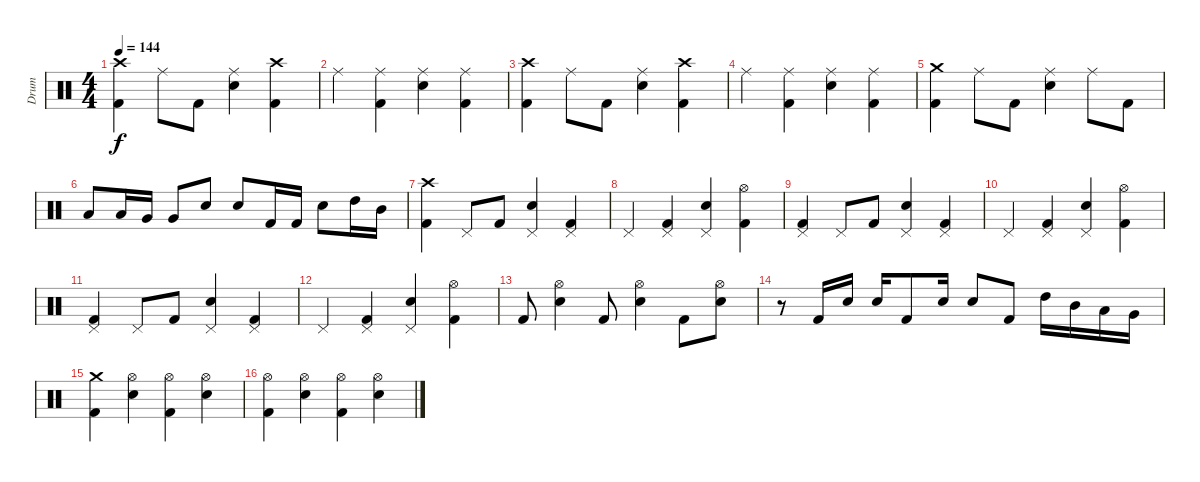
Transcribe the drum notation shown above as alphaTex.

\track ("Drum" "Drum") {instrument percussion}
\staff {score}
\articulation defaults
\ts (4 4)
\tempo 144
\clef neutral
\ks c
("Crash high (hit)" "Kick (hit) 2").4{dy f} "Ride (middle)".8 "Kick (hit) 2".8 ("Ride (middle)" "Electric Snare (hit)").4 ("Crash high (hit)" "Kick (hit) 2").4 |
"Ride (middle)".4 ("Ride (middle)" "Kick (hit) 2").4 ("Ride (middle)" "Electric Snare (hit)").4 ("Ride (middle)" "Kick (hit) 2").4 |
("Crash high (hit)" "Kick (hit) 2").4 "Ride (middle)".8 "Kick (hit) 2".8 ("Ride (middle)" "Electric Snare (hit)").4 ("Crash high (hit)" "Kick (hit) 2").4 |
"Ride (middle)".4 ("Ride (middle)" "Kick (hit) 2").4 ("Ride (middle)" "Electric Snare (hit)").4 ("Ride (middle)" "Kick (hit) 2").4 |
("Crash medium (hit)" "Kick (hit) 2").4 "Ride (middle)".8 "Kick (hit) 2".8 ("Ride (middle)" "Electric Snare (hit)").4 "Ride (middle)".8 "Kick (hit) 2".8 |
"Low Tom (hit)".8 "Low Tom (hit)".16 "Very Low Tom (hit)".16 "Very Low Tom (hit)".8 "Electric Snare (hit)".8 "Electric Snare (hit)".8 "Kick (hit) 2".16 "Kick (hit) 2".16 "Electric Snare (hit)".8 "High Tom (hit)".16 "Mid Tom (hit)".16 |
("Crash high (hit)" "Kick (hit) 2").4 "Pedal Hi-Hat (hit)".8 "Kick (hit) 2".8 ("Pedal Hi-Hat (hit)" "Electric Snare (hit)").4 ("Pedal Hi-Hat (hit)" "Kick (hit) 2").4 |
"Pedal Hi-Hat (hit)".4 ("Pedal Hi-Hat (hit)" "Kick (hit) 2").4 ("Pedal Hi-Hat (hit)" "Electric Snare (hit)").4 ("Hi-Hat (open)" "Kick (hit) 2").4 |
("Pedal Hi-Hat (hit)" "Kick (hit) 2").4 "Pedal Hi-Hat (hit)".8 "Kick (hit) 2".8 ("Pedal Hi-Hat (hit)" "Electric Snare (hit)").4 ("Pedal Hi-Hat (hit)" "Kick (hit) 2").4 |
"Pedal Hi-Hat (hit)".4 ("Pedal Hi-Hat (hit)" "Kick (hit) 2").4 ("Pedal Hi-Hat (hit)" "Electric Snare (hit)").4 ("Hi-Hat (open)" "Kick (hit) 2").4 |
("Pedal Hi-Hat (hit)" "Kick (hit) 2").4 "Pedal Hi-Hat (hit)".8 "Kick (hit) 2".8 ("Pedal Hi-Hat (hit)" "Electric Snare (hit)").4 ("Pedal Hi-Hat (hit)" "Kick (hit) 2").4 |
"Pedal Hi-Hat (hit)".4 ("Pedal Hi-Hat (hit)" "Kick (hit) 2").4 ("Pedal Hi-Hat (hit)" "Electric Snare (hit)").4 ("Hi-Hat (open)" "Kick (hit) 2").4 |
"Kick (hit) 2".8 ("Hi-Hat (open)" "Electric Snare (hit)").4 "Kick (hit) 2".8 ("Hi-Hat (open)" "Electric Snare (hit)").4 "Kick (hit) 2".8 ("Hi-Hat (open)" "Electric Snare (hit)").8 |
r.8 "Kick (hit) 2".16 "Electric Snare (hit)".16 "Electric Snare (hit)".16 "Kick (hit) 2".8 "Electric Snare (hit)".16 "Electric Snare (hit)".8 "Kick (hit) 2".8 "High Tom (hit)".16 "Mid Tom (hit)".16 "Low Tom (hit)".16 "Very Low Tom (hit)".16 |
("Crash medium (hit)" "Kick (hit) 2").4 ("Hi-Hat (open)" "Electric Snare (hit)").4 ("Hi-Hat (open)" "Kick (hit) 2").4 ("Hi-Hat (open)" "Electric Snare (hit)").4 |
("Hi-Hat (open)" "Kick (hit) 2").4 ("Hi-Hat (open)" "Electric Snare (hit)").4 ("Hi-Hat (open)" "Kick (hit) 2").4 ("Hi-Hat (open)" "Electric Snare (hit)").4
